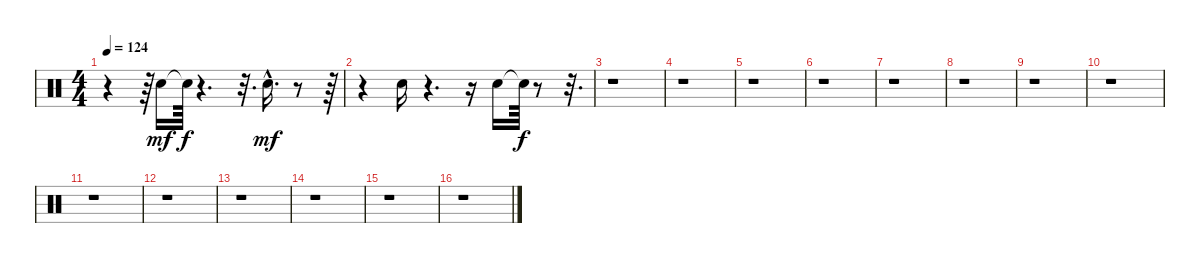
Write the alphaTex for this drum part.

\track "" {instrument percussion}
\staff {score}
\articulation defaults
\ts (4 4)
\tempo 124
\clef neutral
\ks c
r.4{dy mf} r.64 "Electric Snare (hit)".16 "Snare (hit)"{t}.64{dy f} r.4{d} r.32{d} "Electric Snare (hit)"{hac}.16{d dy mf} r.8 r.64 |
r.4 "Electric Snare (hit)".16 r.4{d} r.16 "Electric Snare (hit)".16 "Snare (hit)"{t}.64{dy f} r.8 r.32{d} |
r.1 |
r.1 |
r.1 |
r.1 |
r.1 |
r.1 |
r.1 |
r.1 |
r.1 |
r.1 |
r.1 |
r.1 |
r.1 |
r.1
